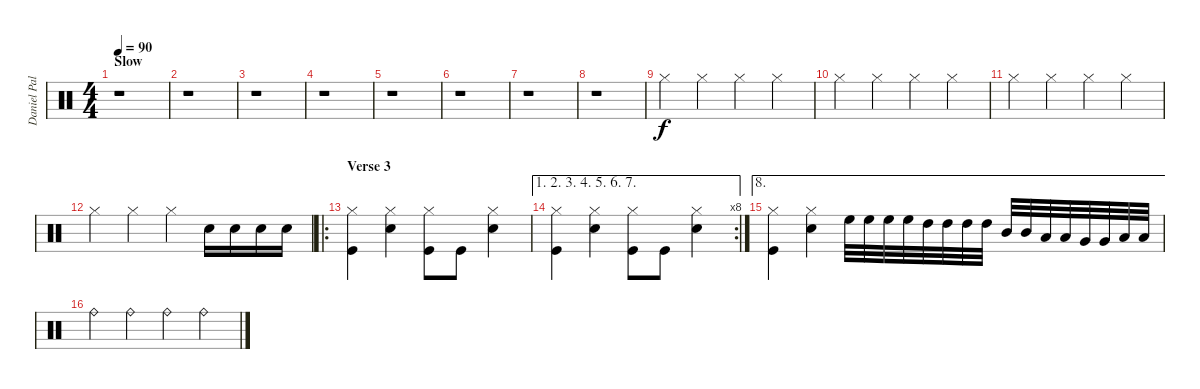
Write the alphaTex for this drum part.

\track ("Daniel Pal" "Daniel Pal") {instrument percussion}
\staff {score}
\articulation defaults
\ts (4 4)
\section ("" "Slow")
\tempo 90
\clef neutral
\ks c
r.1{dy f} |
r.1 |
r.1 |
r.1 |
r.1 |
r.1 |
r.1 |
r.1 |
"Hi-Hat (closed)".4 "Hi-Hat (closed)".4 "Hi-Hat (closed)".4 "Hi-Hat (closed)".4 |
"Hi-Hat (closed)".4 "Hi-Hat (closed)".4 "Hi-Hat (closed)".4 "Hi-Hat (closed)".4 |
"Hi-Hat (closed)".4 "Hi-Hat (closed)".4 "Hi-Hat (closed)".4 "Hi-Hat (closed)".4 |
"Hi-Hat (closed)".4 "Hi-Hat (closed)".4 "Hi-Hat (closed)".4 "Electric Snare (hit)".16 "Electric Snare (hit)".16 "Electric Snare (hit)".16 "Electric Snare (hit)".16 |
\ro
\section ("" "Verse 3")
("Hi-Hat (closed)" "Kick (hit)").4 ("Hi-Hat (closed)" "Electric Snare (hit)").4 ("Hi-Hat (closed)" "Kick (hit)").8 "Kick (hit)".8 ("Hi-Hat (closed)" "Electric Snare (hit)").4 |
\ae (1 2 3 4 5 6 7)
\rc 8
("Hi-Hat (closed)" "Kick (hit)").4 ("Hi-Hat (closed)" "Electric Snare (hit)").4 ("Hi-Hat (closed)" "Kick (hit)").8 "Kick (hit)".8 ("Hi-Hat (closed)" "Electric Snare (hit)").4 |
\ae 8
("Hi-Hat (closed)" "Kick (hit)").4 ("Hi-Hat (closed)" "Electric Snare (hit)").4 "High Floor Tom (hit)".32 "High Floor Tom (hit)".32 "High Floor Tom (hit)".32 "High Floor Tom (hit)".32 "High Tom (hit)".32 "High Tom (hit)".32 "High Tom (hit)".32 "High Tom (hit)".32 "Mid Tom (hit)".32 "Mid Tom (hit)".32 "Low Tom (hit)".32 "Low Tom (hit)".32 "Very Low Tom (hit)".32 "Very Low Tom (hit)".32 "Low Floor Tom (hit)".32 "Low Floor Tom (hit)".32 |
"Ride (bell)".4 "Ride (bell)".4 "Ride (bell)".4 "Ride (bell)".4
